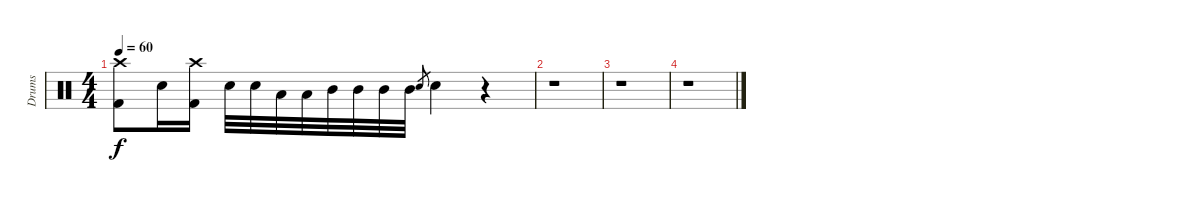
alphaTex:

\track ("Drums" "Drums") {instrument percussion}
\staff {score}
\articulation defaults
\ts (4 4)
\tempo 60
\clef neutral
\ks c
("Crash high (hit)" "Kick (hit) 2").8{dy f} "Electric Snare (hit)".16 ("Crash high (hit)" "Kick (hit) 2").16 "Electric Snare (hit)".32 "Electric Snare (hit)".32 "Low Tom (hit)".32 "Low Tom (hit)".32 "Mid Tom (hit)".32 "Mid Tom (hit)".32 "Mid Tom (hit)".32 "Mid Tom (hit)".32 "Electric Snare (hit)".8{gr} "Electric Snare (hit)".4 r.4 |
r.1 |
r.1 |
r.1
